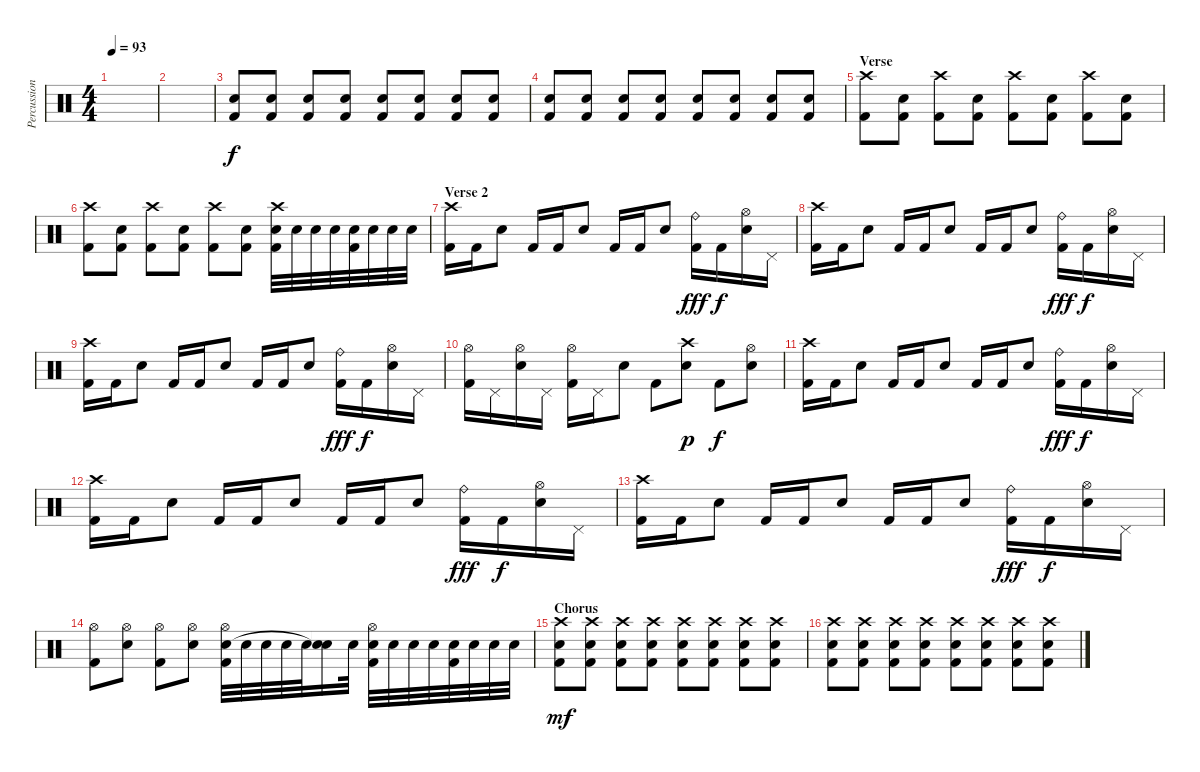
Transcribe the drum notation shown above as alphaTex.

\track ("Percussion" "Percussion") {instrument percussion}
\staff {score}
\articulation defaults
\ts (4 4)
\tempo 93
\clef neutral
\ks c
|
|
("Snare (hit) 2" "Kick (hit) 2").8{volume 8 balance 16} ("Snare (hit) 2" "Kick (hit) 2").8 ("Snare (hit) 2" "Kick (hit) 2").8 ("Snare (hit) 2" "Kick (hit) 2").8 ("Snare (hit) 2" "Kick (hit) 2").8 ("Snare (hit) 2" "Kick (hit) 2").8 ("Snare (hit) 2" "Kick (hit) 2").8 ("Snare (hit) 2" "Kick (hit) 2").8 |
("Snare (hit) 2" "Kick (hit) 2").8 ("Snare (hit) 2" "Kick (hit) 2").8 ("Snare (hit) 2" "Kick (hit) 2").8 ("Snare (hit) 2" "Kick (hit) 2").8 ("Snare (hit) 2" "Kick (hit) 2").8 ("Snare (hit) 2" "Kick (hit) 2").8 ("Snare (hit) 2" "Kick (hit) 2").8 ("Snare (hit) 2" "Kick (hit) 2").8 |
\section ("" "Verse")
("Crash high (hit)" "Kick (hit) 2").8{volume 16 balance 8} ("Snare (hit) 2" "Kick (hit) 2").8 ("Crash high (hit)" "Kick (hit) 2").8 ("Snare (hit) 2" "Kick (hit) 2").8 ("Crash high (hit)" "Kick (hit) 2").8 ("Snare (hit) 2" "Kick (hit) 2").8 ("Crash high (hit)" "Kick (hit) 2").8 ("Snare (hit) 2" "Kick (hit) 2").8 |
("Crash high (hit)" "Kick (hit) 2").8 ("Snare (hit) 2" "Kick (hit) 2").8 ("Crash high (hit)" "Kick (hit) 2").8 ("Snare (hit) 2" "Kick (hit) 2").8 ("Crash high (hit)" "Kick (hit) 2").8 ("Snare (hit) 2" "Kick (hit) 2").8 ("Crash high (hit)" "Snare (hit) 2" "Kick (hit) 2").32 "Snare (hit) 2".32 "Snare (hit) 2".32 "Snare (hit) 2".32 ("Snare (hit) 2" "Kick (hit) 2").32 "Snare (hit) 2".32 "Snare (hit) 2".32 "Snare (hit) 2".32 |
\section ("" "Verse 2")
("Crash high (hit)" "Kick (hit) 2").16 "Kick (hit) 2".16 "Snare (hit) 2".8 "Kick (hit) 2".16 "Kick (hit) 2".16 "Snare (hit) 2".8 "Kick (hit) 2".16 "Kick (hit) 2".16 "Snare (hit) 2".8 ("Ride (bell)" "Kick (hit) 2").16{dy fff} "Kick (hit) 2".16{dy f} ("Hi-Hat (open)" "Snare (hit) 2").16 "Pedal Hi-Hat (hit)".16 |
("Crash high (hit)" "Kick (hit) 2").16 "Kick (hit) 2".16 "Snare (hit) 2".8 "Kick (hit) 2".16 "Kick (hit) 2".16 "Snare (hit) 2".8 "Kick (hit) 2".16 "Kick (hit) 2".16 "Snare (hit) 2".8 ("Ride (bell)" "Kick (hit) 2").16{dy fff} "Kick (hit) 2".16{dy f} ("Hi-Hat (open)" "Snare (hit) 2").16 "Pedal Hi-Hat (hit)".16 |
("Crash high (hit)" "Kick (hit) 2").16 "Kick (hit) 2".16 "Snare (hit) 2".8 "Kick (hit) 2".16 "Kick (hit) 2".16 "Snare (hit) 2".8 "Kick (hit) 2".16 "Kick (hit) 2".16 "Snare (hit) 2".8 ("Ride (bell)" "Kick (hit) 2").16{dy fff} "Kick (hit) 2".16{dy f} ("Hi-Hat (open)" "Snare (hit) 2").16 "Pedal Hi-Hat (hit)".16 |
("Hi-Hat (open)" "Kick (hit) 2").16 "Pedal Hi-Hat (hit)".16 ("Hi-Hat (open)" "Snare (hit) 2").16 "Pedal Hi-Hat (hit)".16 ("Hi-Hat (open)" "Kick (hit) 2").16 "Pedal Hi-Hat (hit)".16 "Snare (hit) 2".8 "Kick (hit) 2".8 ("Crash high (hit)" "Snare (hit) 2").8{dy p} "Kick (hit) 2".8{dy f} ("Hi-Hat (open)" "Snare (hit) 2").8 |
("Crash high (hit)" "Kick (hit) 2").16 "Kick (hit) 2".16 "Snare (hit) 2".8 "Kick (hit) 2".16 "Kick (hit) 2".16 "Snare (hit) 2".8 "Kick (hit) 2".16 "Kick (hit) 2".16 "Snare (hit) 2".8 ("Ride (bell)" "Kick (hit) 2").16{dy fff} "Kick (hit) 2".16{dy f} ("Hi-Hat (open)" "Snare (hit) 2").16 "Pedal Hi-Hat (hit)".16 |
("Crash high (hit)" "Kick (hit) 2").16 "Kick (hit) 2".16 "Snare (hit) 2".8 "Kick (hit) 2".16 "Kick (hit) 2".16 "Snare (hit) 2".8 "Kick (hit) 2".16 "Kick (hit) 2".16 "Snare (hit) 2".8 ("Ride (bell)" "Kick (hit) 2").16{dy fff} "Kick (hit) 2".16{dy f} ("Hi-Hat (open)" "Snare (hit) 2").16 "Pedal Hi-Hat (hit)".16 |
("Crash high (hit)" "Kick (hit) 2").16 "Kick (hit) 2".16 "Snare (hit) 2".8 "Kick (hit) 2".16 "Kick (hit) 2".16 "Snare (hit) 2".8 "Kick (hit) 2".16 "Kick (hit) 2".16 "Snare (hit) 2".8 ("Ride (bell)" "Kick (hit) 2").16{dy fff} "Kick (hit) 2".16{dy f} ("Hi-Hat (open)" "Snare (hit) 2").16 "Pedal Hi-Hat (hit)".16 |
("Hi-Hat (open)" "Kick (hit) 2").8 ("Hi-Hat (open)" "Snare (hit) 2").8 ("Hi-Hat (open)" "Kick (hit) 2").8 ("Hi-Hat (open)" "Snare (hit) 2").8 ("Hi-Hat (open)" "Snare (hit) 2" "Kick (hit) 2").32 "Snare (hit) 2".32 "Snare (hit) 2".32 "Snare (hit) 2".32 "Snare (hit) 2".32 ("Snare (hit)"{t} "Snare (hit)"{t}).16 "Snare (hit) 2".32 ("Hi-Hat (open)" "Snare (hit) 2" "Kick (hit) 2").32 "Snare (hit) 2".32 "Snare (hit) 2".32 "Snare (hit) 2".32 ("Snare (hit) 2" "Kick (hit) 2").32 "Snare (hit) 2".32 "Snare (hit) 2".32 "Snare (hit) 2".32 |
\section ("" "Chorus")
("Crash high (hit)" "Snare (hit) 2" "Kick (hit) 2").8{dy mf} ("Crash high (hit)" "Snare (hit) 2" "Kick (hit) 2").8 ("Crash high (hit)" "Snare (hit) 2" "Kick (hit) 2").8 ("Crash high (hit)" "Snare (hit) 2" "Kick (hit) 2").8 ("Crash high (hit)" "Snare (hit) 2" "Kick (hit) 2").8 ("Crash high (hit)" "Snare (hit) 2" "Kick (hit) 2").8 ("Crash high (hit)" "Snare (hit) 2" "Kick (hit) 2").8 ("Crash high (hit)" "Snare (hit) 2" "Kick (hit) 2").8 |
("Crash high (hit)" "Snare (hit) 2" "Kick (hit) 2").8 ("Crash high (hit)" "Snare (hit) 2" "Kick (hit) 2").8 ("Crash high (hit)" "Snare (hit) 2" "Kick (hit) 2").8 ("Crash high (hit)" "Snare (hit) 2" "Kick (hit) 2").8 ("Crash high (hit)" "Snare (hit) 2" "Kick (hit) 2").8 ("Crash high (hit)" "Snare (hit) 2" "Kick (hit) 2").8 ("Crash high (hit)" "Snare (hit) 2" "Kick (hit) 2").8 ("Crash high (hit)" "Snare (hit) 2" "Kick (hit) 2").8
